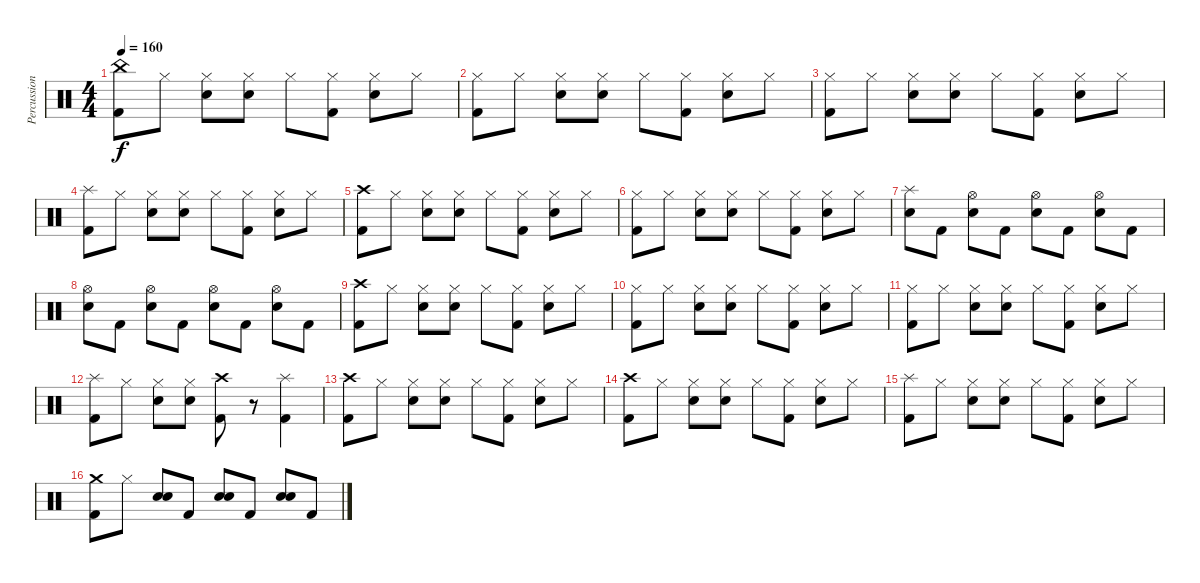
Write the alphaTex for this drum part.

\track ("Percussion" "Percussion") {instrument percussion}
\staff {score}
\articulation defaults
\ts (4 4)
\tempo 160
\clef neutral
\ks c
("China (hit)" "Kick (hit) 2").8{dy f} "Hi-Hat (closed)".8 ("Hi-Hat (closed)" "Snare (hit) 2").8 ("Hi-Hat (closed)" "Snare (hit) 2").8 "Hi-Hat (closed)".8 ("Hi-Hat (closed)" "Kick (hit) 2").8 ("Hi-Hat (closed)" "Snare (hit) 2").8 "Hi-Hat (closed)".8 |
("Hi-Hat (closed)" "Kick (hit) 2").8 "Hi-Hat (closed)".8 ("Hi-Hat (closed)" "Snare (hit) 2").8 ("Hi-Hat (closed)" "Snare (hit) 2").8 "Hi-Hat (closed)".8 ("Hi-Hat (closed)" "Kick (hit) 2").8 ("Hi-Hat (closed)" "Snare (hit) 2").8 "Hi-Hat (closed)".8 |
("Hi-Hat (closed)" "Kick (hit) 2").8 "Hi-Hat (closed)".8 ("Hi-Hat (closed)" "Snare (hit) 2").8 ("Hi-Hat (closed)" "Snare (hit) 2").8 "Hi-Hat (closed)".8 ("Hi-Hat (closed)" "Kick (hit) 2").8 ("Hi-Hat (closed)" "Snare (hit) 2").8 "Hi-Hat (closed)".8 |
("Splash (hit)" "Kick (hit) 2").8 "Hi-Hat (closed)".8 ("Hi-Hat (closed)" "Snare (hit) 2").8 ("Hi-Hat (closed)" "Snare (hit) 2").8 "Hi-Hat (closed)".8 ("Hi-Hat (closed)" "Kick (hit) 2").8 ("Hi-Hat (closed)" "Snare (hit) 2").8 "Hi-Hat (closed)".8 |
("Crash high (hit)" "Kick (hit) 2").8 "Hi-Hat (closed)".8 ("Hi-Hat (closed)" "Snare (hit) 2").8 ("Hi-Hat (closed)" "Snare (hit) 2").8 "Hi-Hat (closed)".8 ("Hi-Hat (closed)" "Kick (hit) 2").8 ("Hi-Hat (closed)" "Snare (hit) 2").8 "Hi-Hat (closed)".8 |
("Hi-Hat (closed)" "Kick (hit) 2").8 "Hi-Hat (closed)".8 ("Hi-Hat (closed)" "Snare (hit) 2").8 ("Hi-Hat (closed)" "Snare (hit) 2").8 "Hi-Hat (closed)".8 ("Hi-Hat (closed)" "Kick (hit) 2").8 ("Hi-Hat (closed)" "Snare (hit) 2").8 "Hi-Hat (closed)".8 |
("Splash (hit)" "Snare (hit) 2").8 "Kick (hit) 2".8 ("Hi-Hat (open)" "Snare (hit) 2").8 "Kick (hit) 2".8 ("Hi-Hat (open)" "Snare (hit) 2").8 "Kick (hit) 2".8 ("Hi-Hat (open)" "Snare (hit) 2").8 "Kick (hit) 2".8 |
("Hi-Hat (open)" "Snare (hit) 2").8 "Kick (hit) 2".8 ("Hi-Hat (open)" "Snare (hit) 2").8 "Kick (hit) 2".8 ("Hi-Hat (open)" "Snare (hit) 2").8 "Kick (hit) 2".8 ("Hi-Hat (open)" "Snare (hit) 2").8 "Kick (hit) 2".8 |
("Crash high (hit)" "Kick (hit) 2").8 "Hi-Hat (closed)".8 ("Hi-Hat (closed)" "Snare (hit) 2").8 ("Hi-Hat (closed)" "Snare (hit) 2").8 "Hi-Hat (closed)".8 ("Hi-Hat (closed)" "Kick (hit) 2").8 ("Hi-Hat (closed)" "Snare (hit) 2").8 "Hi-Hat (closed)".8 |
("Hi-Hat (closed)" "Kick (hit) 2").8 "Hi-Hat (closed)".8 ("Hi-Hat (closed)" "Snare (hit) 2").8 ("Hi-Hat (closed)" "Snare (hit) 2").8 "Hi-Hat (closed)".8 ("Hi-Hat (closed)" "Kick (hit) 2").8 ("Hi-Hat (closed)" "Snare (hit) 2").8 "Hi-Hat (closed)".8 |
("Hi-Hat (closed)" "Kick (hit) 2").8 "Hi-Hat (closed)".8 ("Hi-Hat (closed)" "Snare (hit) 2").8 ("Hi-Hat (closed)" "Snare (hit) 2").8 "Hi-Hat (closed)".8 ("Hi-Hat (closed)" "Kick (hit) 2").8 ("Hi-Hat (closed)" "Snare (hit) 2").8 "Hi-Hat (closed)".8 |
("Splash (hit)" "Kick (hit) 2").8 "Hi-Hat (closed)".8 ("Hi-Hat (closed)" "Snare (hit) 2").8 ("Hi-Hat (closed)" "Snare (hit) 2").8 ("Crash high (hit)" "Kick (hit) 2").8 r.8 ("Splash (hit)" "Kick (hit) 2").4 |
("Crash high (hit)" "Kick (hit) 2").8 "Hi-Hat (closed)".8 ("Hi-Hat (closed)" "Snare (hit) 2").8 ("Hi-Hat (closed)" "Snare (hit) 2").8 "Hi-Hat (closed)".8 ("Hi-Hat (closed)" "Kick (hit) 2").8 ("Hi-Hat (closed)" "Snare (hit) 2").8 "Hi-Hat (closed)".8 |
("Crash high (hit)" "Kick (hit) 2").8 "Hi-Hat (closed)".8 ("Hi-Hat (closed)" "Snare (hit) 2").8 ("Hi-Hat (closed)" "Snare (hit) 2").8 "Hi-Hat (closed)".8 ("Hi-Hat (closed)" "Kick (hit) 2").8 ("Hi-Hat (closed)" "Snare (hit) 2").8 "Hi-Hat (closed)".8 |
("Splash (hit)" "Kick (hit) 2").8 "Hi-Hat (closed)".8 ("Hi-Hat (closed)" "Snare (hit) 2").8 ("Hi-Hat (closed)" "Snare (hit) 2").8 "Hi-Hat (closed)".8 ("Hi-Hat (closed)" "Kick (hit) 2").8 ("Hi-Hat (closed)" "Snare (hit) 2").8 "Hi-Hat (closed)".8 |
("Crash medium (hit)" "Kick (hit) 2").8 "Hi-Hat (closed)".8 ("Snare (hit) 2" "Snare (hit) 2").8 "Kick (hit) 2".8 ("Snare (hit) 2" "Snare (hit) 2").8 "Kick (hit) 2".8 ("Snare (hit) 2" "Snare (hit) 2").8 "Kick (hit) 2".8
